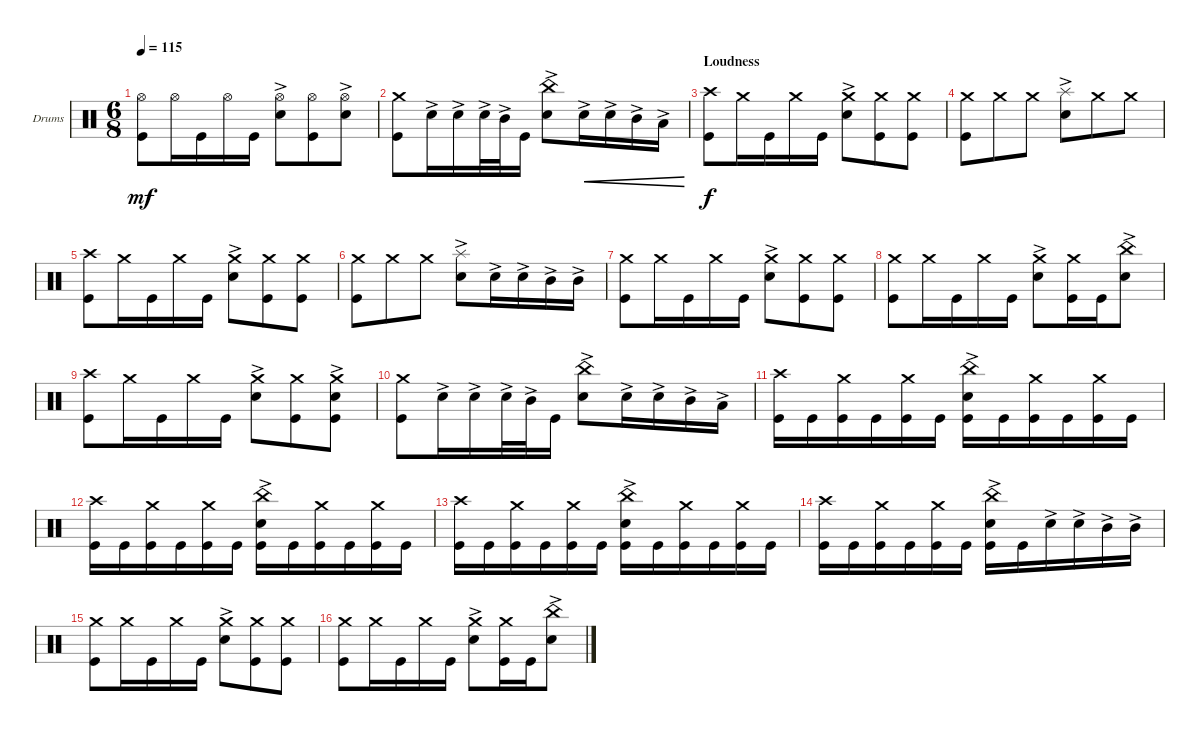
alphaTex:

\bracketExtendMode groupsimilarinstruments
\firstSystemTrackNameOrientation horizontal
\otherSystemsTrackNameOrientation horizontal
\track ("Drumkit" "Drums") {instrument percussion}
\staff {score}
\articulation defaults
\ts (6 8)
\tempo 115
\clef neutral
\ks c
("Kick (hit)" "Hi-Hat (open)").8{dy mf} "Hi-Hat (open)".16 "Kick (hit)".16 "Hi-Hat (open)".16 "Kick (hit)".16 ("Snare (hit) 2"{ac} "Hi-Hat (open)").8 ("Kick (hit)" "Hi-Hat (open)").8 ("Hi-Hat (open)" "Snare (hit) 2"{ac}).8 |
("Kick (hit)" "Crash medium (hit)").8 "Snare (hit) 2"{ac}.16 "Snare (hit) 2"{ac}.16 "Snare (hit) 2"{ac}.32 "Mid Tom (hit)"{ac}.32 "Kick (hit)".16 ("Snare (hit) 2"{ac} "China (hit)").8 "Snare (hit) 2"{ac}.16{cre} "Snare (hit) 2"{ac}.16{cre} "Mid Tom (hit)"{ac}.16{cre} "Low Tom (hit)"{ac}.16{cre} |
\section ("" "Loudness")
("Kick (hit)" "Crash high (hit)").8{dy f} "Crash medium (hit)".16 "Kick (hit)".16 "Crash medium (hit)".16 "Kick (hit)".16 ("Snare (hit) 2"{ac} "Crash medium (hit)").8 ("Kick (hit)" "Crash medium (hit)").8 ("Kick (hit)" "Crash medium (hit)").8 |
("Kick (hit)" "Crash medium (hit)").8 "Crash medium (hit)".8 "Crash medium (hit)".8 ("Snare (hit) 2"{ac} "Splash (hit)").8 "Crash medium (hit)".8 "Crash medium (hit)".8 |
("Kick (hit)" "Crash high (hit)").8 "Crash medium (hit)".16 "Kick (hit)".16 "Crash medium (hit)".16 "Kick (hit)".16 ("Snare (hit) 2"{ac} "Crash medium (hit)").8 ("Kick (hit)" "Crash medium (hit)").8 ("Kick (hit)" "Crash medium (hit)").8 |
("Kick (hit)" "Crash medium (hit)").8 "Crash medium (hit)".8 "Crash medium (hit)".8 ("Snare (hit) 2"{ac} "Splash (hit)").8 "Snare (hit) 2"{ac}.16 "Snare (hit) 2"{ac}.16 "Mid Tom (hit)"{ac}.16 "Mid Tom (hit)"{ac}.16 |
("Kick (hit)" "Crash medium (hit)").8 "Crash medium (hit)".16 "Kick (hit)".16 "Crash medium (hit)".16 "Kick (hit)".16 ("Snare (hit) 2"{ac} "Crash medium (hit)").8 ("Kick (hit)" "Crash medium (hit)").8 ("Kick (hit)" "Crash medium (hit)").8 |
("Kick (hit)" "Crash medium (hit)").8 "Crash medium (hit)".16 "Kick (hit)".16 "Crash medium (hit)".16 "Kick (hit)".16 ("Snare (hit) 2"{ac} "Crash medium (hit)").8 ("Kick (hit)" "Crash medium (hit)").16 "Kick (hit)".16 ("Snare (hit) 2"{ac} "China (hit)").8 |
("Kick (hit)" "Crash high (hit)").8 "Crash medium (hit)".16 "Kick (hit)".16 "Crash medium (hit)".16 "Kick (hit)".16 ("Snare (hit) 2"{ac} "Crash medium (hit)").8 ("Kick (hit)" "Crash medium (hit)").8 ("Kick (hit)" "Crash medium (hit)" "Snare (hit) 2"{ac}).8 |
("Kick (hit)" "Crash medium (hit)").8 "Snare (hit) 2"{ac}.16 "Snare (hit) 2"{ac}.16 "Snare (hit) 2"{ac}.32 "Mid Tom (hit)"{ac}.32 "Kick (hit)".16 ("Snare (hit) 2"{ac} "China (hit)").8 "Snare (hit) 2"{ac}.16 "Snare (hit) 2"{ac}.16 "Mid Tom (hit)"{ac}.16 "Low Tom (hit)"{ac}.16 |
("Kick (hit)" "Crash high (hit)").16 "Kick (hit)".16 ("Kick (hit)" "Crash medium (hit)").16 "Kick (hit)".16 ("Kick (hit)" "Crash medium (hit)").16 "Kick (hit)".16 ("Kick (hit)" "China (hit)" "Snare (hit) 2"{ac}).16 "Kick (hit)".16 ("Kick (hit)" "Crash medium (hit)").16 "Kick (hit)".16 ("Kick (hit)" "Crash medium (hit)").16 "Kick (hit)".16 |
("Kick (hit)" "Crash high (hit)").16 "Kick (hit)".16 ("Kick (hit)" "Crash medium (hit)").16 "Kick (hit)".16 ("Kick (hit)" "Crash medium (hit)").16 "Kick (hit)".16 ("Kick (hit)" "China (hit)" "Snare (hit) 2"{ac}).16 "Kick (hit)".16 ("Kick (hit)" "Crash medium (hit)").16 "Kick (hit)".16 ("Kick (hit)" "Crash medium (hit)").16 "Kick (hit)".16 |
("Kick (hit)" "Crash high (hit)").16 "Kick (hit)".16 ("Kick (hit)" "Crash medium (hit)").16 "Kick (hit)".16 ("Kick (hit)" "Crash medium (hit)").16 "Kick (hit)".16 ("Kick (hit)" "China (hit)" "Snare (hit) 2"{ac}).16 "Kick (hit)".16 ("Kick (hit)" "Crash medium (hit)").16 "Kick (hit)".16 ("Kick (hit)" "Crash medium (hit)").16 "Kick (hit)".16 |
("Kick (hit)" "Crash high (hit)").16 "Kick (hit)".16 ("Kick (hit)" "Crash medium (hit)").16 "Kick (hit)".16 ("Kick (hit)" "Crash medium (hit)").16 "Kick (hit)".16 ("Kick (hit)" "China (hit)" "Snare (hit) 2"{ac}).16 "Kick (hit)".16 "Snare (hit) 2"{ac}.16 "Snare (hit) 2"{ac}.16 "Mid Tom (hit)"{ac}.16 "Mid Tom (hit)"{ac}.16 |
("Kick (hit)" "Crash medium (hit)").8 "Crash medium (hit)".16 "Kick (hit)".16 "Crash medium (hit)".16 "Kick (hit)".16 ("Snare (hit) 2"{ac} "Crash medium (hit)").8 ("Kick (hit)" "Crash medium (hit)").8 ("Kick (hit)" "Crash medium (hit)").8 |
("Kick (hit)" "Crash medium (hit)").8 "Crash medium (hit)".16 "Kick (hit)".16 "Crash medium (hit)".16 "Kick (hit)".16 ("Snare (hit) 2"{ac} "Crash medium (hit)").8 ("Kick (hit)" "Crash medium (hit)").16 "Kick (hit)".16 ("Snare (hit) 2"{ac} "China (hit)").8
